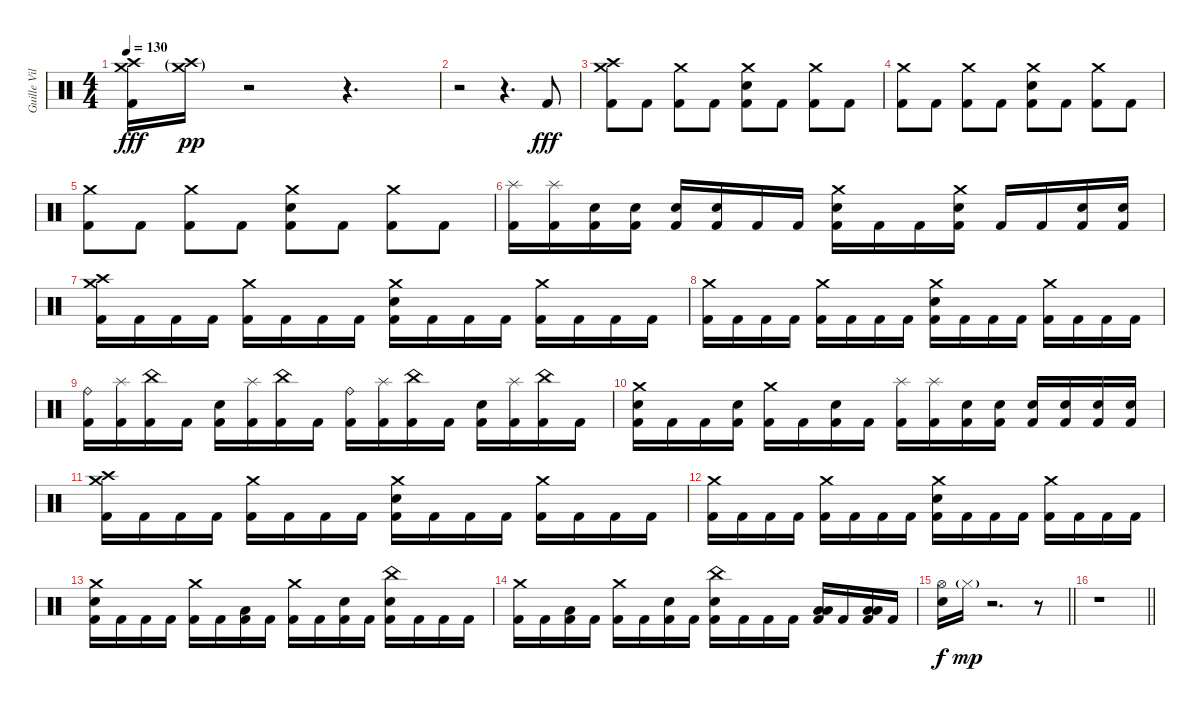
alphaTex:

\track ("Guille Vila" "Guille Vil") {instrument percussion}
\staff {score}
\articulation defaults
\ts (4 4)
\tempo 130
\clef neutral
\ks c
("Crash medium (hit)" "Crash high (hit)" "Kick (hit) 2").16{dy fff} ("Crash medium (hit)"{g} "Crash high (hit)"{g}).16{dy pp} r.2 r.4{d} |
r.2 r.4{d} "Kick (hit) 2".8{dy fff} |
("Crash high (hit)" "Crash medium (hit)" "Kick (hit) 2").8 "Kick (hit) 2".8 ("Crash medium (hit)" "Kick (hit) 2").8 "Kick (hit) 2".8 ("Crash medium (hit)" "Snare (hit) 2" "Kick (hit) 2").8 "Kick (hit) 2".8 ("Crash medium (hit)" "Kick (hit) 2").8 "Kick (hit) 2".8 |
("Crash medium (hit)" "Kick (hit) 2").8 "Kick (hit) 2".8 ("Crash medium (hit)" "Kick (hit) 2").8 "Kick (hit) 2".8 ("Crash medium (hit)" "Snare (hit) 2" "Kick (hit) 2").8 "Kick (hit) 2".8 ("Crash medium (hit)" "Kick (hit) 2").8 "Kick (hit) 2".8 |
("Crash medium (hit)" "Kick (hit) 2").8 "Kick (hit) 2".8 ("Crash medium (hit)" "Kick (hit) 2").8 "Kick (hit) 2".8 ("Crash medium (hit)" "Snare (hit) 2" "Kick (hit) 2").8 "Kick (hit) 2".8 ("Crash medium (hit)" "Kick (hit) 2").8 "Kick (hit) 2".8 |
("Splash (hit)" "Kick (hit) 2").16 ("Splash (hit)" "Kick (hit) 2").16 ("Snare (hit) 2" "Kick (hit) 2").16 ("Snare (hit) 2" "Kick (hit) 2").16 ("Snare (hit) 2" "Kick (hit) 2").16 ("Snare (hit) 2" "Kick (hit) 2").16 "Kick (hit) 2".16 "Kick (hit) 2".16 ("Crash medium (hit)" "Snare (hit) 2" "Kick (hit) 2").16 "Kick (hit) 2".16 "Kick (hit) 2".16 ("Crash medium (hit)" "Snare (hit) 2" "Kick (hit) 2").16 "Kick (hit) 2".16 "Kick (hit) 2".16 ("Snare (hit) 2" "Kick (hit) 2").16 ("Snare (hit) 2" "Kick (hit) 2").16 |
("Crash medium (hit)" "Crash high (hit)" "Kick (hit) 2").16 "Kick (hit) 2".16 "Kick (hit) 2".16 "Kick (hit) 2".16 ("Crash medium (hit)" "Kick (hit) 2").16 "Kick (hit) 2".16 "Kick (hit) 2".16 "Kick (hit) 2".16 ("Crash medium (hit)" "Snare (hit) 2" "Kick (hit) 2").16 "Kick (hit) 2".16 "Kick (hit) 2".16 "Kick (hit) 2".16 ("Crash medium (hit)" "Kick (hit) 2").16 "Kick (hit) 2".16 "Kick (hit) 2".16 "Kick (hit) 2".16 |
("Crash medium (hit)" "Kick (hit) 2").16 "Kick (hit) 2".16 "Kick (hit) 2".16 "Kick (hit) 2".16 ("Crash medium (hit)" "Kick (hit) 2").16 "Kick (hit) 2".16 "Kick (hit) 2".16 "Kick (hit) 2".16 ("Crash medium (hit)" "Snare (hit) 2" "Kick (hit) 2").16 "Kick (hit) 2".16 "Kick (hit) 2".16 "Kick (hit) 2".16 ("Crash medium (hit)" "Kick (hit) 2").16 "Kick (hit) 2".16 "Kick (hit) 2".16 "Kick (hit) 2".16 |
("Ride (bell)" "Kick (hit) 2").16 ("Splash (hit)" "Kick (hit) 2").16 ("China (hit)" "Kick (hit) 2").16 "Kick (hit) 2".16 ("Snare (hit) 2" "Kick (hit) 2").16 ("Splash (hit)" "Kick (hit) 2").16 ("China (hit)" "Kick (hit) 2").16 "Kick (hit) 2".16 ("Ride (bell)" "Kick (hit) 2").16 ("Splash (hit)" "Kick (hit) 2").16 ("China (hit)" "Kick (hit) 2").16 "Kick (hit) 2".16 ("Snare (hit) 2" "Kick (hit) 2").16 ("Splash (hit)" "Kick (hit) 2").16 ("China (hit)" "Kick (hit) 2").16 "Kick (hit) 2".16 |
("Crash medium (hit)" "Snare (hit) 2" "Kick (hit) 2").16 "Kick (hit) 2".16 "Kick (hit) 2".16 ("Snare (hit) 2" "Kick (hit) 2").16 ("Crash medium (hit)" "Kick (hit) 2").16 "Kick (hit) 2".16 ("Snare (hit) 2" "Kick (hit) 2").16 "Kick (hit) 2".16 ("Splash (hit)" "Kick (hit) 2").16 ("Splash (hit)" "Kick (hit) 2").16 ("Snare (hit) 2" "Kick (hit) 2").16 ("Snare (hit) 2" "Kick (hit) 2").16 ("Snare (hit) 2" "Kick (hit) 2").16 ("Snare (hit) 2" "Kick (hit) 2").16 ("Snare (hit) 2" "Kick (hit) 2").16 ("Snare (hit) 2" "Kick (hit) 2").16 |
("Crash medium (hit)" "Crash high (hit)" "Kick (hit) 2").16 "Kick (hit) 2".16 "Kick (hit) 2".16 "Kick (hit) 2".16 ("Crash medium (hit)" "Kick (hit) 2").16 "Kick (hit) 2".16 "Kick (hit) 2".16 "Kick (hit) 2".16 ("Crash medium (hit)" "Snare (hit) 2" "Kick (hit) 2").16 "Kick (hit) 2".16 "Kick (hit) 2".16 "Kick (hit) 2".16 ("Crash medium (hit)" "Kick (hit) 2").16 "Kick (hit) 2".16 "Kick (hit) 2".16 "Kick (hit) 2".16 |
("Crash medium (hit)" "Kick (hit) 2").16 "Kick (hit) 2".16 "Kick (hit) 2".16 "Kick (hit) 2".16 ("Crash medium (hit)" "Kick (hit) 2").16 "Kick (hit) 2".16 "Kick (hit) 2".16 "Kick (hit) 2".16 ("Crash medium (hit)" "Snare (hit) 2" "Kick (hit) 2").16 "Kick (hit) 2".16 "Kick (hit) 2".16 "Kick (hit) 2".16 ("Crash medium (hit)" "Kick (hit) 2").16 "Kick (hit) 2".16 "Kick (hit) 2".16 "Kick (hit) 2".16 |
("Crash medium (hit)" "Snare (hit) 2" "Kick (hit) 2").16 "Kick (hit) 2".16 "Kick (hit) 2".16 "Kick (hit) 2".16 ("Crash medium (hit)" "Kick (hit) 2").16 "Kick (hit) 2".16 ("Low Tom (hit)" "Kick (hit) 2").16 "Kick (hit) 2".16 ("Crash medium (hit)" "Kick (hit) 2").16 "Kick (hit) 2".16 ("Snare (hit) 2" "Kick (hit) 2").16 "Kick (hit) 2".16 ("China (hit)" "Snare (hit) 2" "Kick (hit) 2").16 "Kick (hit) 2".16 "Kick (hit) 2".16 "Kick (hit) 2".16 |
("Crash medium (hit)" "Kick (hit) 2").16 "Kick (hit) 2".16 ("Low Tom (hit)" "Kick (hit) 2").16 "Kick (hit) 2".16 ("Crash medium (hit)" "Kick (hit) 2").16 "Kick (hit) 2".16 ("Snare (hit) 2" "Kick (hit) 2").16 "Kick (hit) 2".16 ("China (hit)" "Snare (hit) 2" "Kick (hit) 2").16 "Kick (hit) 2".16 "Kick (hit) 2".16 "Kick (hit) 2".16 ("Low Tom (hit)" "Low Floor Tom (hit)" "Kick (hit) 2").16 "Kick (hit) 2".16 ("Low Tom (hit)" "Low Floor Tom (hit)" "Kick (hit) 2").16 "Kick (hit) 2".16 |
\barLineRight lightlight
("Hi-Hat (open)" "Snare (hit) 2").16{dy f} "Hi-Hat (closed)"{g}.16{dy mp} r.2{d} r.8 |
\barLineRight lightlight
r.1
